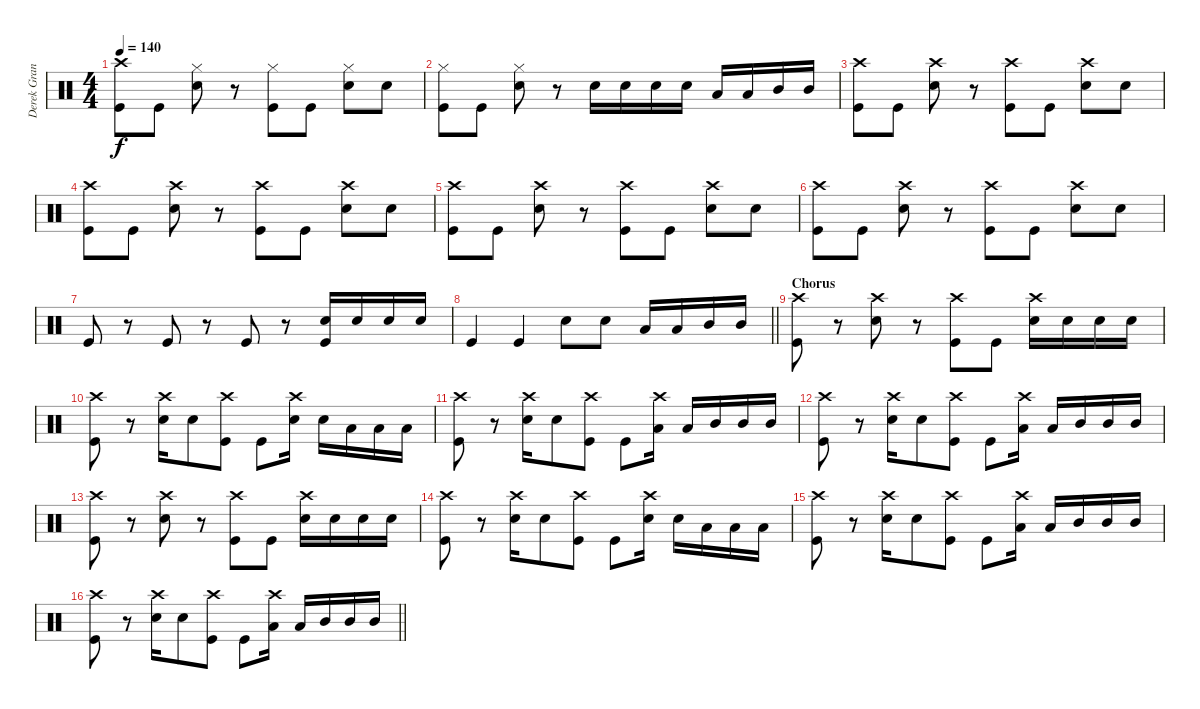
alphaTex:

\track ("Derek Grant" "Derek Gran") {instrument percussion}
\staff {score}
\articulation defaults
\ts (4 4)
\tempo 140
\clef neutral
\ks c
("Crash high (hit)" "Kick (hit)").8{dy f} "Kick (hit)".8 ("Hi-Hat (closed)" "Snare (hit) 2").8 r.8 ("Hi-Hat (closed)" "Kick (hit)").8 "Kick (hit)".8 ("Hi-Hat (closed)" "Snare (hit) 2").8 "Snare (hit) 2".8 |
("Hi-Hat (closed)" "Kick (hit)").8 "Kick (hit)".8 ("Hi-Hat (closed)" "Snare (hit) 2").8 r.8 "Snare (hit) 2".16 "Snare (hit) 2".16 "Snare (hit) 2".16 "Snare (hit) 2".16 "Low Tom (hit)".16 "Low Tom (hit)".16 "Mid Tom (hit)".16 "Mid Tom (hit)".16 |
("Crash high (hit)" "Kick (hit)").8 "Kick (hit)".8 ("Crash high (hit)" "Snare (hit) 2").8 r.8 ("Crash high (hit)" "Kick (hit)").8 "Kick (hit)".8 ("Crash high (hit)" "Snare (hit) 2").8 "Snare (hit) 2".8 |
("Crash high (hit)" "Kick (hit)").8 "Kick (hit)".8 ("Crash high (hit)" "Snare (hit) 2").8 r.8 ("Crash high (hit)" "Kick (hit)").8 "Kick (hit)".8 ("Crash high (hit)" "Snare (hit) 2").8 "Snare (hit) 2".8 |
("Crash high (hit)" "Kick (hit)").8 "Kick (hit)".8 ("Crash high (hit)" "Snare (hit) 2").8 r.8 ("Crash high (hit)" "Kick (hit)").8 "Kick (hit)".8 ("Crash high (hit)" "Snare (hit) 2").8 "Snare (hit) 2".8 |
("Crash high (hit)" "Kick (hit)").8 "Kick (hit)".8 ("Crash high (hit)" "Snare (hit) 2").8 r.8 ("Crash high (hit)" "Kick (hit)").8 "Kick (hit)".8 ("Crash high (hit)" "Snare (hit) 2").8 "Snare (hit) 2".8 |
"Kick (hit)".8 r.8 "Kick (hit)".8 r.8 "Kick (hit)".8 r.8 ("Snare (hit) 2" "Kick (hit)").16 "Snare (hit) 2".16 "Snare (hit) 2".16 "Snare (hit) 2".16 |
\barLineRight lightlight "Kick (hit)".4 "Kick (hit)".4 "Snare (hit) 2".8 "Snare (hit) 2".8 "Low Tom (hit)".16 "Low Tom (hit)".16 "Mid Tom (hit)".16 "Mid Tom (hit)".16
|
\section ("" "Chorus")
("Crash high (hit)" "Kick (hit)").8 r.8 ("Crash high (hit)" "Snare (hit) 2").8 r.8 ("Crash high (hit)" "Kick (hit)").8 "Kick (hit)".8 ("Crash high (hit)" "Snare (hit) 2").16 "Snare (hit) 2".16 "Snare (hit) 2".16 "Snare (hit) 2".16 |
("Crash high (hit)" "Kick (hit)").8 r.8 ("Crash high (hit)" "Snare (hit) 2").16 "Snare (hit) 2".8 ("Crash high (hit)" "Kick (hit)").8 "Kick (hit)".8 ("Crash high (hit)" "Snare (hit) 2").16 "Snare (hit) 2".16 "Low Tom (hit)".16 "Low Tom (hit)".16 "Low Tom (hit)".16 |
("Crash high (hit)" "Kick (hit)").8 r.8 ("Crash high (hit)" "Snare (hit) 2").16 "Snare (hit) 2".8 ("Crash high (hit)" "Kick (hit)").8 "Kick (hit)".8 ("Crash high (hit)" "Low Tom (hit)").16 "Low Tom (hit)".16 "Mid Tom (hit)".16 "Mid Tom (hit)".16 "Mid Tom (hit)".16 |
("Crash high (hit)" "Kick (hit)").8 r.8 ("Crash high (hit)" "Snare (hit) 2").16 "Snare (hit) 2".8 ("Crash high (hit)" "Kick (hit)").8 "Kick (hit)".8 ("Crash high (hit)" "Low Tom (hit)").16 "Low Tom (hit)".16 "Mid Tom (hit)".16 "Mid Tom (hit)".16 "Mid Tom (hit)".16 |
("Crash high (hit)" "Kick (hit)").8 r.8 ("Crash high (hit)" "Snare (hit) 2").8 r.8 ("Crash high (hit)" "Kick (hit)").8 "Kick (hit)".8 ("Crash high (hit)" "Snare (hit) 2").16 "Snare (hit) 2".16 "Snare (hit) 2".16 "Snare (hit) 2".16 |
("Crash high (hit)" "Kick (hit)").8 r.8 ("Crash high (hit)" "Snare (hit) 2").16 "Snare (hit) 2".8 ("Crash high (hit)" "Kick (hit)").8 "Kick (hit)".8 ("Crash high (hit)" "Snare (hit) 2").16 "Snare (hit) 2".16 "Low Tom (hit)".16 "Low Tom (hit)".16 "Low Tom (hit)".16 |
("Crash high (hit)" "Kick (hit)").8 r.8 ("Crash high (hit)" "Snare (hit) 2").16 "Snare (hit) 2".8 ("Crash high (hit)" "Kick (hit)").8 "Kick (hit)".8 ("Crash high (hit)" "Low Tom (hit)").16 "Low Tom (hit)".16 "Mid Tom (hit)".16 "Mid Tom (hit)".16 "Mid Tom (hit)".16 |
\barLineRight lightlight
("Crash high (hit)" "Kick (hit)").8 r.8 ("Crash high (hit)" "Snare (hit) 2").16 "Snare (hit) 2".8 ("Crash high (hit)" "Kick (hit)").8 "Kick (hit)".8 ("Crash high (hit)" "Low Tom (hit)").16 "Low Tom (hit)".16 "Mid Tom (hit)".16 "Mid Tom (hit)".16 "Mid Tom (hit)".16
